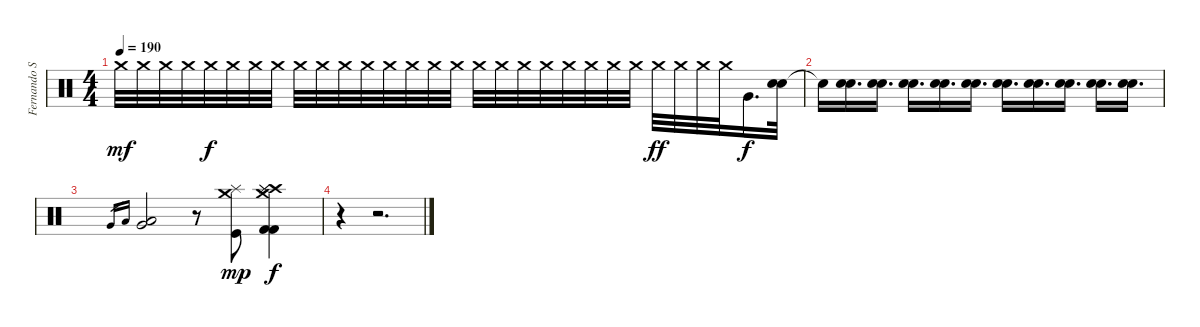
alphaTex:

\track ("Fernando Sarcella" "Fernando S") {instrument percussion}
\staff {score}
\articulation defaults
\ts (4 4)
\tempo 190
\clef neutral
\ks c "Crash medium (hit)".32{dy mf} "Crash medium (hit)".32 "Crash medium (hit)".32 "Crash medium (hit)".32 "Crash medium (hit)".32{dy f} "Crash medium (hit)".32 "Crash medium (hit)".32 "Crash medium (hit)".32 "Crash medium (hit)".32 "Crash medium (hit)".32 "Crash medium (hit)".32 "Crash medium (hit)".32 "Crash medium (hit)".32 "Crash medium (hit)".32 "Crash medium (hit)".32 "Crash medium (hit)".32 "Crash medium (hit)".32 "Crash medium (hit)".32 "Crash medium (hit)".32 "Crash medium (hit)".32 "Crash medium (hit)".32 "Crash medium (hit)".32 "Crash medium (hit)".32 "Crash medium (hit)".32 "Crash medium (hit)".32{dy ff} "Crash medium (hit)".32 "Crash medium (hit)".32 "Crash medium (hit)".32 "Very Low Tom (hit)".16{d dy f}
("Electric Snare (hit)" "Electric Snare (hit)").32 |
"Snare (hit)"{t}.16 ("Electric Snare (hit)" "Electric Snare (hit)").16{d} ("Electric Snare (hit)" "Electric Snare (hit)").16{d} ("Electric Snare (hit)" "Electric Snare (hit)").16{d} ("Electric Snare (hit)" "Electric Snare (hit)").16{d} ("Electric Snare (hit)" "Electric Snare (hit)").16{d} ("Electric Snare (hit)" "Electric Snare (hit)").16{d} ("Electric Snare (hit)" "Electric Snare (hit)").16{d} ("Electric Snare (hit)" "Electric Snare (hit)").16{d} ("Electric Snare (hit)" "Electric Snare (hit)").16{d} ("Electric Snare (hit)" "Electric Snare (hit)").16{d} |
"Very Low Tom (hit)".16{gr} "Low Tom (hit)".16{gr} ("Very Low Tom (hit)" "Low Tom (hit)").2 r.8 ("Crash medium (hit)" "Splash (hit)" "Kick (hit)").8{dy mp} ("Crash high (hit)" "Splash (hit)" "Kick (hit) 2" "Crash medium (hit)" "Kick (hit) 2" "Splash (hit)").4{dy f} |
r.4 r.2{d}
